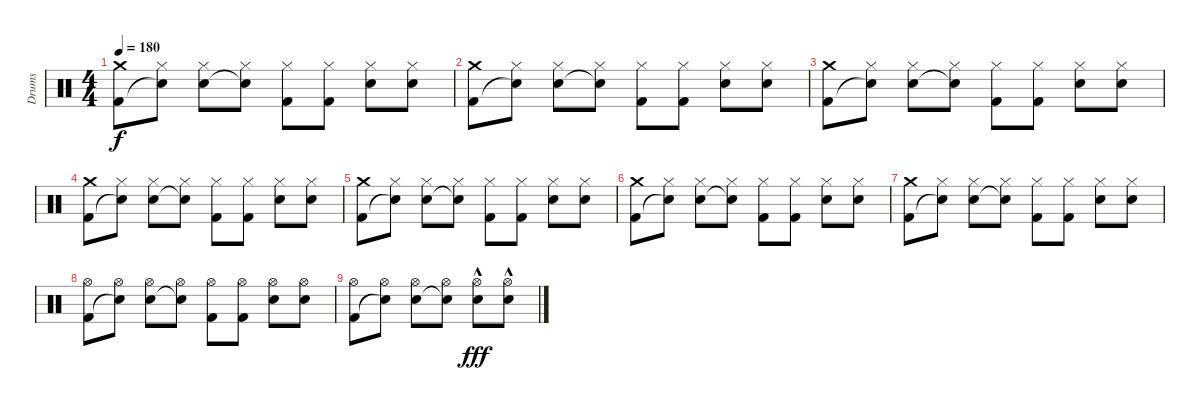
\track ("Drums" "Drums") {instrument percussion}
\staff {score}
\articulation defaults
\ts (4 4)
\tempo 180
\clef neutral
\ks c
("Crash medium (hit)" "Kick (hit) 2").8{dy f} ("Hi-Hat (closed)" "Snare (hit)"{t}).8 ("Hi-Hat (closed)" "Electric Snare (hit)").8 ("Hi-Hat (closed)" "Snare (hit)"{t}).8 ("Hi-Hat (closed)" "Kick (hit) 2").8 ("Hi-Hat (closed)" "Kick (hit) 2").8 ("Hi-Hat (closed)" "Electric Snare (hit)").8 ("Hi-Hat (closed)" "Electric Snare (hit)").8 |
("Crash medium (hit)" "Kick (hit) 2").8 ("Hi-Hat (closed)" "Snare (hit)"{t}).8 ("Hi-Hat (closed)" "Electric Snare (hit)").8 ("Hi-Hat (closed)" "Snare (hit)"{t}).8 ("Hi-Hat (closed)" "Kick (hit) 2").8 ("Hi-Hat (closed)" "Kick (hit) 2").8 ("Hi-Hat (closed)" "Electric Snare (hit)").8 ("Hi-Hat (closed)" "Electric Snare (hit)").8 |
("Crash medium (hit)" "Kick (hit) 2").8 ("Hi-Hat (closed)" "Snare (hit)"{t}).8 ("Hi-Hat (closed)" "Electric Snare (hit)").8 ("Hi-Hat (closed)" "Snare (hit)"{t}).8 ("Hi-Hat (closed)" "Kick (hit) 2").8 ("Hi-Hat (closed)" "Kick (hit) 2").8 ("Hi-Hat (closed)" "Electric Snare (hit)").8 ("Hi-Hat (closed)" "Electric Snare (hit)").8 |
("Crash medium (hit)" "Kick (hit) 2").8 ("Hi-Hat (closed)" "Snare (hit)"{t}).8 ("Hi-Hat (closed)" "Electric Snare (hit)").8 ("Hi-Hat (closed)" "Snare (hit)"{t}).8 ("Hi-Hat (closed)" "Kick (hit) 2").8 ("Hi-Hat (closed)" "Kick (hit) 2").8 ("Hi-Hat (closed)" "Electric Snare (hit)").8 ("Hi-Hat (closed)" "Electric Snare (hit)").8 |
("Crash medium (hit)" "Kick (hit) 2").8 ("Hi-Hat (closed)" "Snare (hit)"{t}).8 ("Hi-Hat (closed)" "Electric Snare (hit)").8 ("Hi-Hat (closed)" "Snare (hit)"{t}).8 ("Hi-Hat (closed)" "Kick (hit) 2").8 ("Hi-Hat (closed)" "Kick (hit) 2").8 ("Hi-Hat (closed)" "Electric Snare (hit)").8 ("Hi-Hat (closed)" "Electric Snare (hit)").8 |
("Crash medium (hit)" "Kick (hit) 2").8 ("Hi-Hat (closed)" "Snare (hit)"{t}).8 ("Hi-Hat (closed)" "Electric Snare (hit)").8 ("Hi-Hat (closed)" "Snare (hit)"{t}).8 ("Hi-Hat (closed)" "Kick (hit) 2").8 ("Hi-Hat (closed)" "Kick (hit) 2").8 ("Hi-Hat (closed)" "Electric Snare (hit)").8 ("Hi-Hat (closed)" "Electric Snare (hit)").8 |
("Crash medium (hit)" "Kick (hit) 2").8 ("Hi-Hat (closed)" "Snare (hit)"{t}).8 ("Hi-Hat (closed)" "Electric Snare (hit)").8 ("Hi-Hat (closed)" "Snare (hit)"{t}).8 ("Hi-Hat (closed)" "Kick (hit) 2").8 ("Hi-Hat (closed)" "Kick (hit) 2").8 ("Hi-Hat (closed)" "Electric Snare (hit)").8 ("Hi-Hat (closed)" "Electric Snare (hit)").8 |
("Hi-Hat (open)" "Kick (hit) 2").8 ("Hi-Hat (open)" "Snare (hit)"{t}).8 ("Hi-Hat (open)" "Electric Snare (hit)").8 ("Hi-Hat (open)" "Snare (hit)"{t}).8 ("Hi-Hat (open)" "Kick (hit) 2").8 ("Hi-Hat (open)" "Kick (hit) 2").8 ("Hi-Hat (open)" "Electric Snare (hit)").8 ("Hi-Hat (open)" "Electric Snare (hit)").8 |
("Hi-Hat (open)" "Kick (hit) 2").8 ("Hi-Hat (open)" "Snare (hit)"{t}).8 ("Hi-Hat (open)" "Electric Snare (hit)").8 ("Hi-Hat (open)" "Snare (hit)"{t}).8 ("Hi-Hat (open)" "Electric Snare (hit)"{hac}).8{dy fff} ("Hi-Hat (open)" "Electric Snare (hit)"{hac}).8
